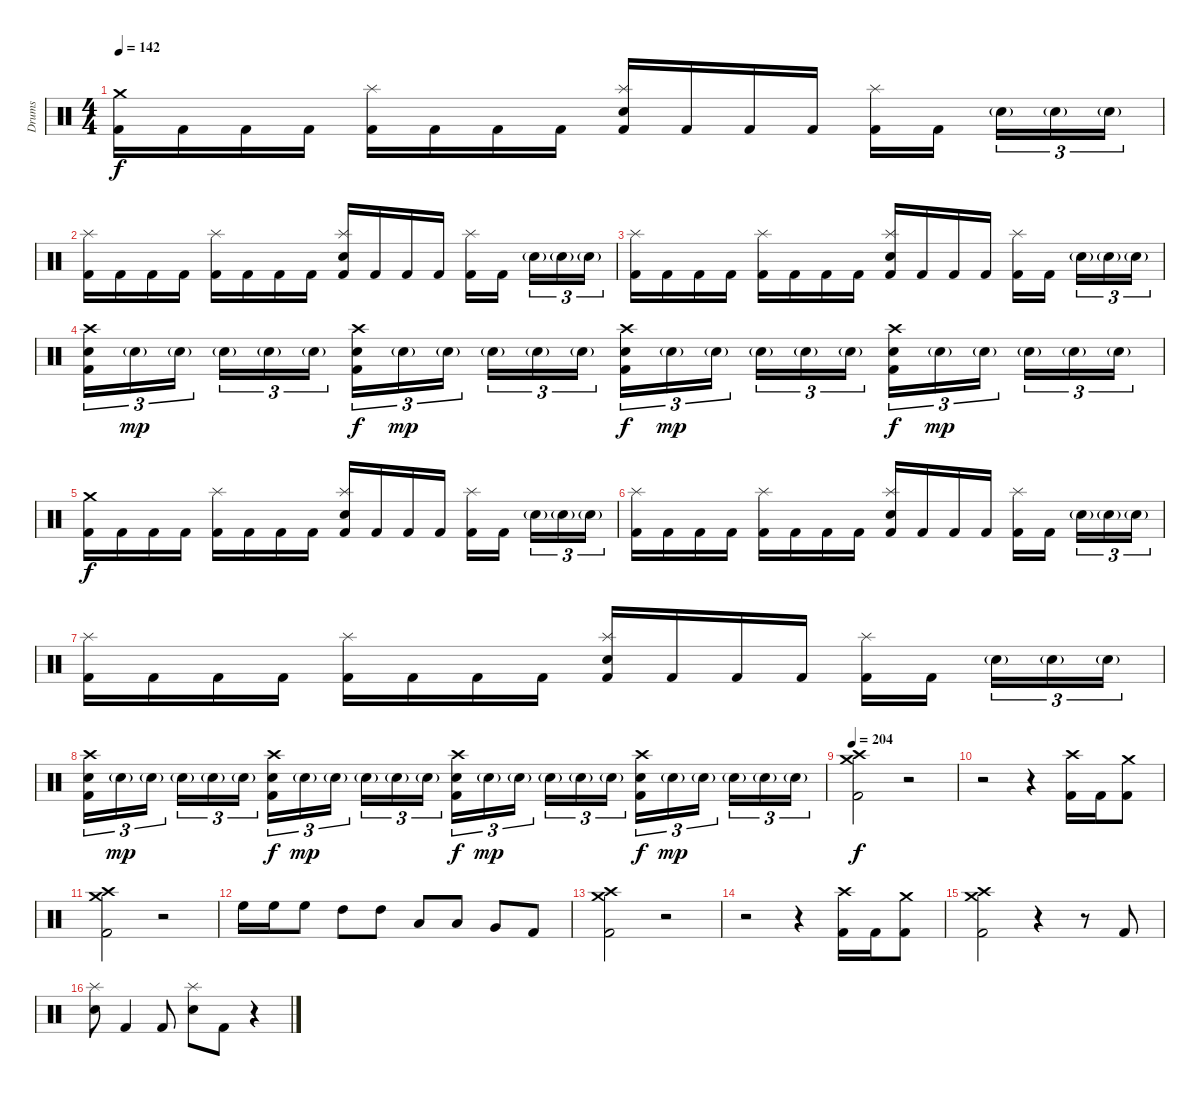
\track ("Drums" "Drums") {instrument percussion}
\staff {score}
\articulation defaults
\ts (4 4)
\tempo 142
\clef neutral
\ks c
("Crash medium (hit)" "Kick (hit) 2").16{dy f} "Kick (hit) 2".16 "Kick (hit) 2".16 "Kick (hit) 2".16 ("Splash (hit)" "Kick (hit) 2").16 "Kick (hit) 2".16 "Kick (hit) 2".16 "Kick (hit) 2".16 ("Splash (hit)" "Electric Snare (hit)" "Kick (hit) 2").16 "Kick (hit) 2".16 "Kick (hit) 2".16 "Kick (hit) 2".16 ("Splash (hit)" "Kick (hit) 2").16 "Kick (hit) 2".16{beam splitsecondary} "Electric Snare (hit)"{g}.16{tu (3 2)} "Electric Snare (hit)"{g}.16{tu (3 2)} "Electric Snare (hit)"{g}.16{tu (3 2)} |
("Splash (hit)" "Kick (hit) 2").16 "Kick (hit) 2".16 "Kick (hit) 2".16 "Kick (hit) 2".16 ("Splash (hit)" "Kick (hit) 2").16 "Kick (hit) 2".16 "Kick (hit) 2".16 "Kick (hit) 2".16 ("Splash (hit)" "Electric Snare (hit)" "Kick (hit) 2").16 "Kick (hit) 2".16 "Kick (hit) 2".16 "Kick (hit) 2".16 ("Splash (hit)" "Kick (hit) 2").16 "Kick (hit) 2".16{beam splitsecondary} "Electric Snare (hit)"{g}.16{tu (3 2)} "Electric Snare (hit)"{g}.16{tu (3 2)} "Electric Snare (hit)"{g}.16{tu (3 2)} |
("Splash (hit)" "Kick (hit) 2").16 "Kick (hit) 2".16 "Kick (hit) 2".16 "Kick (hit) 2".16 ("Splash (hit)" "Kick (hit) 2").16 "Kick (hit) 2".16 "Kick (hit) 2".16 "Kick (hit) 2".16 ("Splash (hit)" "Electric Snare (hit)" "Kick (hit) 2").16 "Kick (hit) 2".16 "Kick (hit) 2".16 "Kick (hit) 2".16 ("Splash (hit)" "Kick (hit) 2").16 "Kick (hit) 2".16{beam splitsecondary} "Electric Snare (hit)"{g}.16{tu (3 2)} "Electric Snare (hit)"{g}.16{tu (3 2)} "Electric Snare (hit)"{g}.16{tu (3 2)} |
("Crash high (hit)" "Electric Snare (hit)" "Kick (hit) 2").16{tu (3 2)} "Electric Snare (hit)"{g}.16{tu (3 2) dy mp} "Electric Snare (hit)"{g}.16{tu (3 2) beam splitsecondary} "Electric Snare (hit)"{g}.16{tu (3 2)} "Electric Snare (hit)"{g}.16{tu (3 2)} "Electric Snare (hit)"{g}.16{tu (3 2)} ("Crash high (hit)" "Electric Snare (hit)" "Kick (hit) 2").16{tu (3 2) dy f} "Electric Snare (hit)"{g}.16{tu (3 2) dy mp} "Electric Snare (hit)"{g}.16{tu (3 2) beam splitsecondary} "Electric Snare (hit)"{g}.16{tu (3 2)} "Electric Snare (hit)"{g}.16{tu (3 2)} "Electric Snare (hit)"{g}.16{tu (3 2)} ("Crash high (hit)" "Electric Snare (hit)" "Kick (hit) 2").16{tu (3 2) dy f} "Electric Snare (hit)"{g}.16{tu (3 2) dy mp} "Electric Snare (hit)"{g}.16{tu (3 2) beam splitsecondary} "Electric Snare (hit)"{g}.16{tu (3 2)} "Electric Snare (hit)"{g}.16{tu (3 2)} "Electric Snare (hit)"{g}.16{tu (3 2)} ("Crash high (hit)" "Electric Snare (hit)" "Kick (hit) 2").16{tu (3 2) dy f} "Electric Snare (hit)"{g}.16{tu (3 2) dy mp} "Electric Snare (hit)"{g}.16{tu (3 2) beam splitsecondary} "Electric Snare (hit)"{g}.16{tu (3 2)} "Electric Snare (hit)"{g}.16{tu (3 2)} "Electric Snare (hit)"{g}.16{tu (3 2)} |
("Crash medium (hit)" "Kick (hit) 2").16{dy f} "Kick (hit) 2".16 "Kick (hit) 2".16 "Kick (hit) 2".16 ("Splash (hit)" "Kick (hit) 2").16 "Kick (hit) 2".16 "Kick (hit) 2".16 "Kick (hit) 2".16 ("Splash (hit)" "Electric Snare (hit)" "Kick (hit) 2").16 "Kick (hit) 2".16 "Kick (hit) 2".16 "Kick (hit) 2".16 ("Splash (hit)" "Kick (hit) 2").16 "Kick (hit) 2".16{beam splitsecondary} "Electric Snare (hit)"{g}.16{tu (3 2)} "Electric Snare (hit)"{g}.16{tu (3 2)} "Electric Snare (hit)"{g}.16{tu (3 2)} |
("Splash (hit)" "Kick (hit) 2").16 "Kick (hit) 2".16 "Kick (hit) 2".16 "Kick (hit) 2".16 ("Splash (hit)" "Kick (hit) 2").16 "Kick (hit) 2".16 "Kick (hit) 2".16 "Kick (hit) 2".16 ("Splash (hit)" "Electric Snare (hit)" "Kick (hit) 2").16 "Kick (hit) 2".16 "Kick (hit) 2".16 "Kick (hit) 2".16 ("Splash (hit)" "Kick (hit) 2").16 "Kick (hit) 2".16{beam splitsecondary} "Electric Snare (hit)"{g}.16{tu (3 2)} "Electric Snare (hit)"{g}.16{tu (3 2)} "Electric Snare (hit)"{g}.16{tu (3 2)} |
("Splash (hit)" "Kick (hit) 2").16 "Kick (hit) 2".16 "Kick (hit) 2".16 "Kick (hit) 2".16 ("Splash (hit)" "Kick (hit) 2").16 "Kick (hit) 2".16 "Kick (hit) 2".16 "Kick (hit) 2".16 ("Splash (hit)" "Electric Snare (hit)" "Kick (hit) 2").16 "Kick (hit) 2".16 "Kick (hit) 2".16 "Kick (hit) 2".16 ("Splash (hit)" "Kick (hit) 2").16 "Kick (hit) 2".16{beam splitsecondary} "Electric Snare (hit)"{g}.16{tu (3 2)} "Electric Snare (hit)"{g}.16{tu (3 2)} "Electric Snare (hit)"{g}.16{tu (3 2)} |
("Crash high (hit)" "Electric Snare (hit)" "Kick (hit) 2").16{tu (3 2)} "Electric Snare (hit)"{g}.16{tu (3 2) dy mp} "Electric Snare (hit)"{g}.16{tu (3 2) beam splitsecondary} "Electric Snare (hit)"{g}.16{tu (3 2)} "Electric Snare (hit)"{g}.16{tu (3 2)} "Electric Snare (hit)"{g}.16{tu (3 2)} ("Crash high (hit)" "Electric Snare (hit)" "Kick (hit) 2").16{tu (3 2) dy f} "Electric Snare (hit)"{g}.16{tu (3 2) dy mp} "Electric Snare (hit)"{g}.16{tu (3 2) beam splitsecondary} "Electric Snare (hit)"{g}.16{tu (3 2)} "Electric Snare (hit)"{g}.16{tu (3 2)} "Electric Snare (hit)"{g}.16{tu (3 2)} ("Crash high (hit)" "Electric Snare (hit)" "Kick (hit) 2").16{tu (3 2) dy f} "Electric Snare (hit)"{g}.16{tu (3 2) dy mp} "Electric Snare (hit)"{g}.16{tu (3 2) beam splitsecondary} "Electric Snare (hit)"{g}.16{tu (3 2)} "Electric Snare (hit)"{g}.16{tu (3 2)} "Electric Snare (hit)"{g}.16{tu (3 2)} ("Crash high (hit)" "Electric Snare (hit)" "Kick (hit) 2").16{tu (3 2) dy f} "Electric Snare (hit)"{g}.16{tu (3 2) dy mp} "Electric Snare (hit)"{g}.16{tu (3 2) beam splitsecondary} "Electric Snare (hit)"{g}.16{tu (3 2)} "Electric Snare (hit)"{g}.16{tu (3 2)} "Electric Snare (hit)"{g}.16{tu (3 2)} |
\tempo 204
("Crash high (hit)" "Crash medium (hit)" "Kick (hit) 2").2{dy f} r.2 |
r.2 r.4 ("Crash high (hit)" "Kick (hit) 2").16 "Kick (hit) 2".16 ("Crash medium (hit)" "Kick (hit) 2").8 |
("Crash high (hit)" "Crash medium (hit)" "Kick (hit) 2").2 r.2 |
"High Floor Tom (hit)".16 "High Floor Tom (hit)".16 "High Floor Tom (hit)".8 "High Tom (hit)".8 "High Tom (hit)".8 "Low Tom (hit)".8 "Low Tom (hit)".8 "Very Low Tom (hit)".8 "Kick (hit) 2".8 |
("Crash high (hit)" "Crash medium (hit)" "Kick (hit) 2").2 r.2 |
r.2 r.4 ("Crash high (hit)" "Kick (hit) 2").16 "Kick (hit) 2".16 ("Crash medium (hit)" "Kick (hit) 2").8 |
("Crash high (hit)" "Crash medium (hit)" "Kick (hit) 2").2 r.4 r.8 "Kick (hit) 2".8 |
("Splash (hit)" "Electric Snare (hit)").8 "Kick (hit) 2".4 "Kick (hit) 2".8 ("Splash (hit)" "Electric Snare (hit)").8 "Kick (hit) 2".8 r.4
